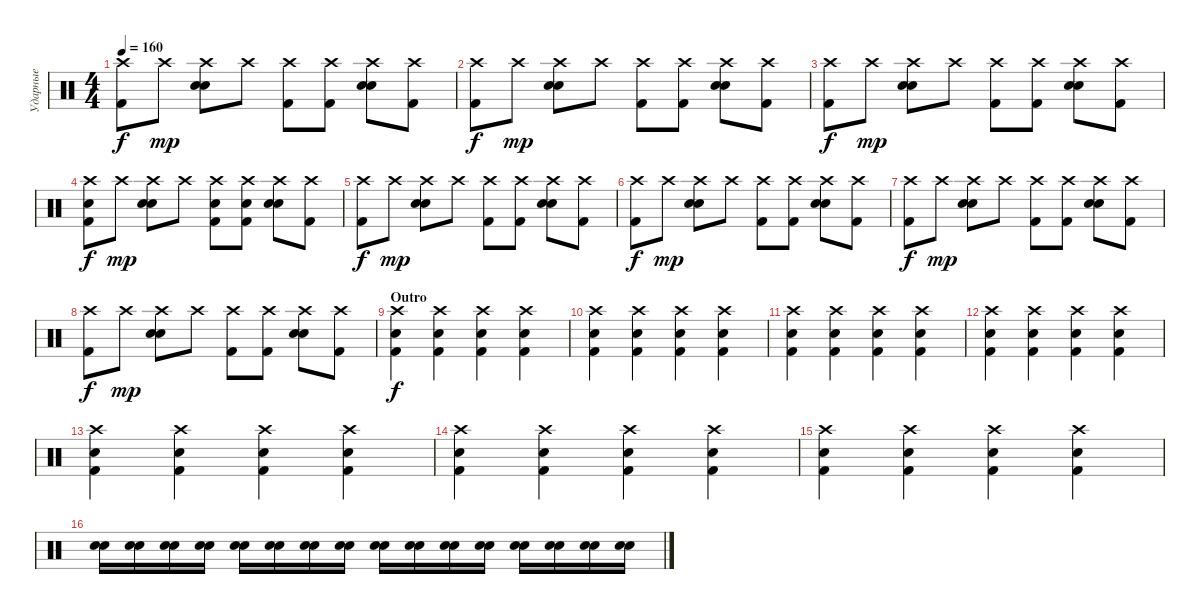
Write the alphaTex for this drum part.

\track ("Ударные" "Ударные") {instrument percussion}
\staff {score}
\articulation defaults
\ts (4 4)
\tempo 160
\clef neutral
\ks c
("Crash high (hit)" "Kick (hit) 2").8{dy f} "Crash high (hit)".8{dy mp} ("Crash high (hit)" "Electric Snare (hit)" "Electric Snare (hit)").8 "Crash high (hit)".8 ("Crash high (hit)" "Kick (hit) 2").8 ("Crash high (hit)" "Kick (hit) 2").8 ("Crash high (hit)" "Electric Snare (hit)" "Electric Snare (hit)").8 ("Crash high (hit)" "Kick (hit) 2").8 |
("Crash high (hit)" "Kick (hit) 2").8{dy f} "Crash high (hit)".8{dy mp} ("Crash high (hit)" "Electric Snare (hit)" "Electric Snare (hit)").8 "Crash high (hit)".8 ("Crash high (hit)" "Kick (hit) 2").8 ("Crash high (hit)" "Kick (hit) 2").8 ("Crash high (hit)" "Electric Snare (hit)" "Electric Snare (hit)").8 ("Crash high (hit)" "Kick (hit) 2").8 |
("Crash high (hit)" "Kick (hit) 2").8{dy f} "Crash high (hit)".8{dy mp} ("Crash high (hit)" "Electric Snare (hit)" "Electric Snare (hit)").8 "Crash high (hit)".8 ("Crash high (hit)" "Kick (hit) 2").8 ("Crash high (hit)" "Kick (hit) 2").8 ("Crash high (hit)" "Electric Snare (hit)" "Electric Snare (hit)").8 ("Crash high (hit)" "Kick (hit) 2").8 |
("Crash high (hit)" "Electric Snare (hit)" "Kick (hit) 2").8{dy f} "Crash high (hit)".8{dy mp} ("Crash high (hit)" "Electric Snare (hit)" "Electric Snare (hit)").8 "Crash high (hit)".8 ("Crash high (hit)" "Electric Snare (hit)" "Kick (hit) 2").8 ("Crash high (hit)" "Electric Snare (hit)" "Kick (hit) 2").8 ("Crash high (hit)" "Electric Snare (hit)" "Electric Snare (hit)").8 ("Crash high (hit)" "Kick (hit) 2").8 |
("Crash high (hit)" "Kick (hit) 2").8{dy f} "Crash high (hit)".8{dy mp} ("Crash high (hit)" "Electric Snare (hit)" "Electric Snare (hit)").8 "Crash high (hit)".8 ("Crash high (hit)" "Kick (hit) 2").8 ("Crash high (hit)" "Kick (hit) 2").8 ("Crash high (hit)" "Electric Snare (hit)" "Electric Snare (hit)").8 ("Crash high (hit)" "Kick (hit) 2").8 |
("Crash high (hit)" "Kick (hit) 2").8{dy f} "Crash high (hit)".8{dy mp} ("Crash high (hit)" "Electric Snare (hit)" "Electric Snare (hit)").8 "Crash high (hit)".8 ("Crash high (hit)" "Kick (hit) 2").8 ("Crash high (hit)" "Kick (hit) 2").8 ("Crash high (hit)" "Electric Snare (hit)" "Electric Snare (hit)").8 ("Crash high (hit)" "Kick (hit) 2").8 |
("Crash high (hit)" "Kick (hit) 2").8{dy f} "Crash high (hit)".8{dy mp} ("Crash high (hit)" "Electric Snare (hit)" "Electric Snare (hit)").8 "Crash high (hit)".8 ("Crash high (hit)" "Kick (hit) 2").8 ("Crash high (hit)" "Kick (hit) 2").8 ("Crash high (hit)" "Electric Snare (hit)" "Electric Snare (hit)").8 ("Crash high (hit)" "Kick (hit) 2").8 |
("Crash high (hit)" "Kick (hit) 2").8{dy f} "Crash high (hit)".8{dy mp} ("Crash high (hit)" "Electric Snare (hit)" "Electric Snare (hit)").8 "Crash high (hit)".8 ("Crash high (hit)" "Kick (hit) 2").8 ("Crash high (hit)" "Kick (hit) 2").8 ("Crash high (hit)" "Electric Snare (hit)" "Electric Snare (hit)").8 ("Crash high (hit)" "Kick (hit) 2").8 |
\section ("" "Outro")
("Crash high (hit)" "Kick (hit) 2" "Electric Snare (hit)").4{dy f} ("Crash high (hit)" "Kick (hit) 2" "Electric Snare (hit)").4 ("Crash high (hit)" "Kick (hit) 2" "Electric Snare (hit)").4 ("Crash high (hit)" "Kick (hit) 2" "Electric Snare (hit)").4 |
("Crash high (hit)" "Kick (hit) 2" "Electric Snare (hit)").4 ("Crash high (hit)" "Kick (hit) 2" "Electric Snare (hit)").4 ("Crash high (hit)" "Kick (hit) 2" "Electric Snare (hit)").4 ("Crash high (hit)" "Kick (hit) 2" "Electric Snare (hit)").4 |
("Crash high (hit)" "Kick (hit) 2" "Electric Snare (hit)").4 ("Crash high (hit)" "Kick (hit) 2" "Electric Snare (hit)").4 ("Crash high (hit)" "Kick (hit) 2" "Electric Snare (hit)").4 ("Crash high (hit)" "Kick (hit) 2" "Electric Snare (hit)").4 |
("Crash high (hit)" "Kick (hit) 2" "Electric Snare (hit)").4 ("Crash high (hit)" "Kick (hit) 2" "Electric Snare (hit)").4 ("Crash high (hit)" "Kick (hit) 2" "Electric Snare (hit)").4 ("Crash high (hit)" "Kick (hit) 2" "Electric Snare (hit)").4 |
("Crash high (hit)" "Kick (hit) 2" "Electric Snare (hit)").4 ("Crash high (hit)" "Kick (hit) 2" "Electric Snare (hit)").4 ("Crash high (hit)" "Kick (hit) 2" "Electric Snare (hit)").4 ("Crash high (hit)" "Kick (hit) 2" "Electric Snare (hit)").4 |
("Crash high (hit)" "Kick (hit) 2" "Electric Snare (hit)").4 ("Crash high (hit)" "Kick (hit) 2" "Electric Snare (hit)").4 ("Crash high (hit)" "Kick (hit) 2" "Electric Snare (hit)").4 ("Crash high (hit)" "Kick (hit) 2" "Electric Snare (hit)").4 |
("Crash high (hit)" "Kick (hit) 2" "Electric Snare (hit)").4 ("Crash high (hit)" "Kick (hit) 2" "Electric Snare (hit)").4 ("Crash high (hit)" "Kick (hit) 2" "Electric Snare (hit)").4 ("Crash high (hit)" "Kick (hit) 2" "Electric Snare (hit)").4 |
("Electric Snare (hit)" "Electric Snare (hit)").16 ("Electric Snare (hit)" "Electric Snare (hit)").16 ("Electric Snare (hit)" "Electric Snare (hit)").16 ("Electric Snare (hit)" "Electric Snare (hit)").16 ("Electric Snare (hit)" "Electric Snare (hit)").16 ("Electric Snare (hit)" "Electric Snare (hit)").16 ("Electric Snare (hit)" "Electric Snare (hit)").16 ("Electric Snare (hit)" "Electric Snare (hit)").16 ("Electric Snare (hit)" "Electric Snare (hit)").16 ("Electric Snare (hit)" "Electric Snare (hit)").16 ("Electric Snare (hit)" "Electric Snare (hit)").16 ("Electric Snare (hit)" "Electric Snare (hit)").16 ("Electric Snare (hit)" "Electric Snare (hit)").16 ("Electric Snare (hit)" "Electric Snare (hit)").16 ("Electric Snare (hit)" "Electric Snare (hit)").16 ("Electric Snare (hit)" "Electric Snare (hit)").16
